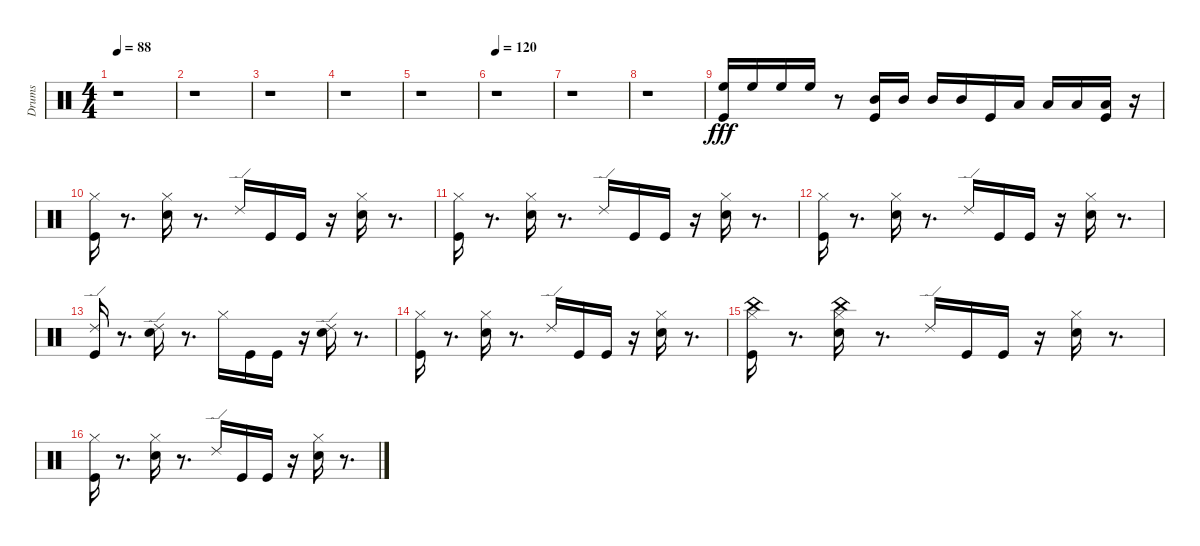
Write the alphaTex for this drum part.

\track ("Drums" "Drums") {instrument percussion}
\staff {score}
\articulation defaults
\ts (4 4)
\tempo 88
\clef neutral
\ks c
r.1{dy fff} |
r.1 |
r.1 |
r.1 |
r.1 |
\tempo 120
r.1 |
r.1 |
r.1 |
("High Floor Tom (hit)" "Kick (hit)").16 "High Floor Tom (hit)".16 "High Floor Tom (hit)".16 "High Floor Tom (hit)".16 r.8 ("Mid Tom (hit)" "Kick (hit)").16 "Mid Tom (hit)".16 "Mid Tom (hit)".16 "Mid Tom (hit)".16 "Kick (hit)".16 "Low Tom (hit)".16 "Low Tom (hit)".16 "Low Tom (hit)".16 ("Low Tom (hit)" "Kick (hit)").16 r.16 |
("Hi-Hat (closed)" "Kick (hit)").16 r.8{d} ("Hi-Hat (closed)" "Snare (hit) 2").16 r.8{d} "Ride (edge) 2".16 "Kick (hit)".16 "Kick (hit)".16 r.16 ("Hi-Hat (closed)" "Snare (hit) 2").16 r.8{d} |
("Hi-Hat (closed)" "Kick (hit)").16 r.8{d} ("Hi-Hat (closed)" "Snare (hit) 2").16 r.8{d} "Ride (edge) 2".16 "Kick (hit)".16 "Kick (hit)".16 r.16 ("Hi-Hat (closed)" "Snare (hit) 2").16 r.8{d} |
("Hi-Hat (closed)" "Kick (hit)").16 r.8{d} ("Hi-Hat (closed)" "Snare (hit) 2").16 r.8{d} "Ride (edge) 2".16 "Kick (hit)".16 "Kick (hit)".16 r.16 ("Hi-Hat (closed)" "Snare (hit) 2").16 r.8{d} |
("Kick (hit)" "Ride (edge) 2").16 r.8{d} ("Snare (hit) 2" "Ride (edge) 2").16 r.8{d} "Hi-Hat (closed)".16 "Kick (hit)".16 "Kick (hit)".16 r.16 ("Snare (hit) 2" "Ride (edge) 2").16 r.8{d} |
("Hi-Hat (closed)" "Kick (hit)").16 r.8{d} ("Hi-Hat (closed)" "Snare (hit) 2").16 r.8{d} "Ride (edge) 2".16 "Kick (hit)".16 "Kick (hit)".16 r.16 ("Hi-Hat (closed)" "Snare (hit) 2").16 r.8{d} |
("Hi-Hat (closed)" "Kick (hit)" "China (hit)").16 r.8{d} ("Hi-Hat (closed)" "Snare (hit) 2" "China (hit)").16 r.8{d} "Ride (edge) 2".16 "Kick (hit)".16 "Kick (hit)".16 r.16 ("Hi-Hat (closed)" "Snare (hit) 2").16 r.8{d} |
("Hi-Hat (closed)" "Kick (hit)").16 r.8{d} ("Hi-Hat (closed)" "Snare (hit) 2").16 r.8{d} "Ride (edge) 2".16 "Kick (hit)".16 "Kick (hit)".16 r.16 ("Hi-Hat (closed)" "Snare (hit) 2").16 r.8{d}
